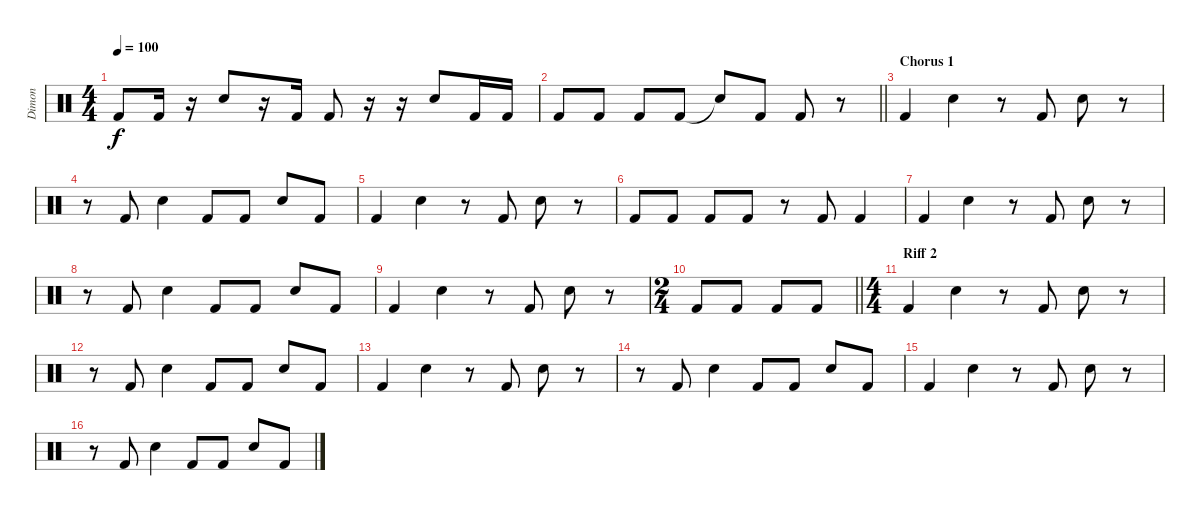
\track ("Dimon" "Dimon") {instrument percussion}
\staff {score}
\articulation defaults
\ts (4 4)
\tempo 100
\clef neutral
\ks c "Kick (hit) 2".8{dy f} "Kick (hit) 2".16
r.16 "Electric Snare (hit)".8 r.16 "Kick (hit) 2".16 "Kick (hit) 2".8 r.16 r.16 "Electric Snare (hit)".8 "Kick (hit) 2".16 "Kick (hit) 2".16 |
\barLineRight lightlight "Kick (hit) 2".8 "Kick (hit) 2".8 "Kick (hit) 2".8 "Kick (hit) 2".8 "Snare (hit)"{t}.8 "Kick (hit) 2".8 "Kick (hit) 2".8
r.8 |
\section ("" "Chorus 1")
"Kick (hit) 2".4 "Electric Snare (hit)".4 r.8 "Kick (hit) 2".8 "Electric Snare (hit)".8 r.8 |
r.8 "Kick (hit) 2".8 "Electric Snare (hit)".4 "Kick (hit) 2".8 "Kick (hit) 2".8 "Electric Snare (hit)".8 "Kick (hit) 2".8 |
"Kick (hit) 2".4 "Electric Snare (hit)".4 r.8 "Kick (hit) 2".8 "Electric Snare (hit)".8 r.8 |
"Kick (hit) 2".8 "Kick (hit) 2".8 "Kick (hit) 2".8 "Kick (hit) 2".8 r.8 "Kick (hit) 2".8 "Kick (hit) 2".4 |
"Kick (hit) 2".4 "Electric Snare (hit)".4 r.8 "Kick (hit) 2".8 "Electric Snare (hit)".8 r.8 |
r.8 "Kick (hit) 2".8 "Electric Snare (hit)".4 "Kick (hit) 2".8 "Kick (hit) 2".8 "Electric Snare (hit)".8 "Kick (hit) 2".8 |
"Kick (hit) 2".4 "Electric Snare (hit)".4 r.8 "Kick (hit) 2".8 "Electric Snare (hit)".8 r.8 |
\ts (2 4)
\barLineRight lightlight "Kick (hit) 2".8 "Kick (hit) 2".8 "Kick (hit) 2".8 "Kick (hit) 2".8
|
\ts (4 4)
\section ("" "Riff 2")
"Kick (hit) 2".4 "Electric Snare (hit)".4 r.8 "Kick (hit) 2".8 "Electric Snare (hit)".8 r.8 |
r.8 "Kick (hit) 2".8 "Electric Snare (hit)".4 "Kick (hit) 2".8 "Kick (hit) 2".8 "Electric Snare (hit)".8 "Kick (hit) 2".8 |
"Kick (hit) 2".4 "Electric Snare (hit)".4 r.8 "Kick (hit) 2".8 "Electric Snare (hit)".8 r.8 |
r.8 "Kick (hit) 2".8 "Electric Snare (hit)".4 "Kick (hit) 2".8 "Kick (hit) 2".8 "Electric Snare (hit)".8 "Kick (hit) 2".8 |
"Kick (hit) 2".4 "Electric Snare (hit)".4 r.8 "Kick (hit) 2".8 "Electric Snare (hit)".8 r.8 |
r.8 "Kick (hit) 2".8 "Electric Snare (hit)".4 "Kick (hit) 2".8 "Kick (hit) 2".8 "Electric Snare (hit)".8 "Kick (hit) 2".8
